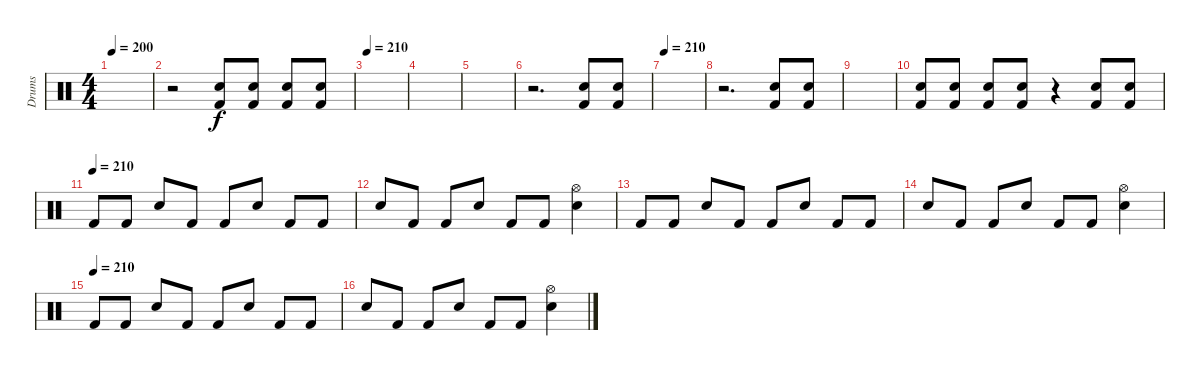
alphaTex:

\track ("Drums" "Drums") {instrument percussion}
\staff {score}
\articulation defaults
\ts (4 4)
\tempo 200
\clef neutral
\ks c
|
r.2 ("Kick (hit) 2" "Snare (hit) 2").8 ("Kick (hit) 2" "Snare (hit) 2").8 ("Kick (hit) 2" "Snare (hit) 2").8 ("Kick (hit) 2" "Snare (hit) 2").8 |
\tempo 200
\tempo 210
|
|
|
r.2{d} ("Kick (hit) 2" "Snare (hit) 2").8 ("Kick (hit) 2" "Snare (hit) 2").8 |
\tempo 200
\tempo 210
|
r.2{d} ("Kick (hit) 2" "Snare (hit) 2").8 ("Kick (hit) 2" "Snare (hit) 2").8 |
|
("Kick (hit) 2" "Snare (hit) 2").8 ("Kick (hit) 2" "Snare (hit) 2").8 ("Kick (hit) 2" "Snare (hit) 2").8 ("Kick (hit) 2" "Snare (hit) 2").8 r.4 ("Kick (hit) 2" "Snare (hit) 2").8 ("Kick (hit) 2" "Snare (hit) 2").8 |
\tempo 200
\tempo (210)
"Kick (hit) 2".8 "Kick (hit) 2".8 "Snare (hit) 2".8 "Kick (hit) 2".8 "Kick (hit) 2".8 "Snare (hit) 2".8 "Kick (hit) 2".8 "Kick (hit) 2".8 |
"Snare (hit) 2".8 "Kick (hit) 2".8 "Kick (hit) 2".8 "Snare (hit) 2".8 "Kick (hit) 2".8 "Kick (hit) 2".8 ("Hi-Hat (open)" "Snare (hit) 2").4 |
"Kick (hit) 2".8 "Kick (hit) 2".8 "Snare (hit) 2".8 "Kick (hit) 2".8 "Kick (hit) 2".8 "Snare (hit) 2".8 "Kick (hit) 2".8 "Kick (hit) 2".8 |
"Snare (hit) 2".8 "Kick (hit) 2".8 "Kick (hit) 2".8 "Snare (hit) 2".8 "Kick (hit) 2".8 "Kick (hit) 2".8 ("Hi-Hat (open)" "Snare (hit) 2").4 |
\tempo 200
\tempo (210)
"Kick (hit) 2".8 "Kick (hit) 2".8 "Snare (hit) 2".8 "Kick (hit) 2".8 "Kick (hit) 2".8 "Snare (hit) 2".8 "Kick (hit) 2".8 "Kick (hit) 2".8 |
"Snare (hit) 2".8 "Kick (hit) 2".8 "Kick (hit) 2".8 "Snare (hit) 2".8 "Kick (hit) 2".8 "Kick (hit) 2".8 ("Hi-Hat (open)" "Snare (hit) 2").4
